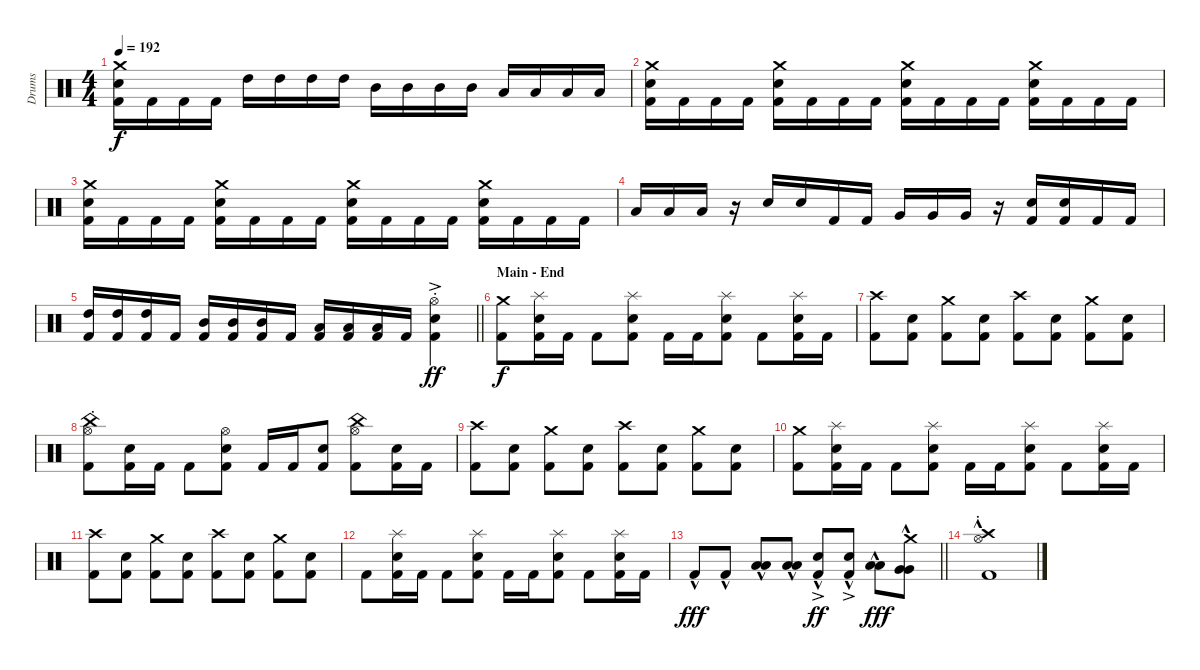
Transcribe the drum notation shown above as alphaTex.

\track ("Drums" "Drums") {instrument percussion}
\staff {score}
\articulation defaults
\ts (4 4)
\tempo 192
\clef neutral
\ks c
("Kick (hit) 2" "Snare (hit) 2" "Crash medium (hit)").16{dy f} "Kick (hit) 2".16 "Kick (hit) 2".16 "Kick (hit) 2".16 "High Tom (hit)".16 "High Tom (hit)".16 "High Tom (hit)".16 "High Tom (hit)".16 "Mid Tom (hit)".16 "Mid Tom (hit)".16 "Mid Tom (hit)".16 "Mid Tom (hit)".16 "Low Tom (hit)".16 "Low Tom (hit)".16 "Low Tom (hit)".16 "Low Tom (hit)".16 |
("Kick (hit) 2" "Snare (hit) 2" "Crash medium (hit)").16 "Kick (hit) 2".16 "Kick (hit) 2".16 "Kick (hit) 2".16 ("Kick (hit) 2" "Snare (hit) 2" "Crash medium (hit)").16 "Kick (hit) 2".16 "Kick (hit) 2".16 "Kick (hit) 2".16 ("Kick (hit) 2" "Snare (hit) 2" "Crash medium (hit)").16 "Kick (hit) 2".16 "Kick (hit) 2".16 "Kick (hit) 2".16 ("Kick (hit) 2" "Snare (hit) 2" "Crash medium (hit)").16 "Kick (hit) 2".16 "Kick (hit) 2".16 "Kick (hit) 2".16 |
("Kick (hit) 2" "Snare (hit) 2" "Crash medium (hit)").16 "Kick (hit) 2".16 "Kick (hit) 2".16 "Kick (hit) 2".16 ("Kick (hit) 2" "Snare (hit) 2" "Crash medium (hit)").16 "Kick (hit) 2".16 "Kick (hit) 2".16 "Kick (hit) 2".16 ("Kick (hit) 2" "Snare (hit) 2" "Crash medium (hit)").16 "Kick (hit) 2".16 "Kick (hit) 2".16 "Kick (hit) 2".16 ("Kick (hit) 2" "Snare (hit) 2" "Crash medium (hit)").16 "Kick (hit) 2".16 "Kick (hit) 2".16 "Kick (hit) 2".16 |
"Low Tom (hit)".16 "Low Tom (hit)".16 "Low Tom (hit)".16 r.16 "Snare (hit) 2".16 "Snare (hit) 2".16 "Kick (hit) 2".16 "Kick (hit) 2".16 "Very Low Tom (hit)".16 "Very Low Tom (hit)".16 "Very Low Tom (hit)".16 r.16 ("Kick (hit) 2" "Snare (hit) 2").16 ("Kick (hit) 2" "Snare (hit) 2").16 "Kick (hit) 2".16 "Kick (hit) 2".16 |
\barLineRight lightlight
("Kick (hit) 2" "High Tom (hit)").16 ("Kick (hit) 2" "High Tom (hit)").16 ("Kick (hit) 2" "High Tom (hit)").16 "Kick (hit) 2".16 ("Kick (hit) 2" "Mid Tom (hit)").16 ("Kick (hit) 2" "Mid Tom (hit)").16 ("Kick (hit) 2" "Mid Tom (hit)").16 "Kick (hit) 2".16 ("Kick (hit) 2" "Low Tom (hit)").16 ("Kick (hit) 2" "Low Tom (hit)").16 ("Kick (hit) 2" "Low Tom (hit)").16 "Kick (hit) 2".16 ("Kick (hit) 2" "Snare (hit) 2"{ac st} "Hi-Hat (open)").4{dy ff} |
\section ("" "Main - End")
("Kick (hit) 2" "Crash medium (hit)").8{dy f} ("Kick (hit) 2" "Snare (hit) 2" "Splash (hit)").16 "Kick (hit) 2".16 "Kick (hit) 2".8 ("Kick (hit) 2" "Snare (hit) 2" "Splash (hit)").8 "Kick (hit) 2".16 "Kick (hit) 2".16 ("Kick (hit) 2" "Snare (hit) 2" "Splash (hit)").8 "Kick (hit) 2".8 ("Kick (hit) 2" "Snare (hit) 2" "Splash (hit)").16 "Kick (hit) 2".16 |
("Kick (hit) 2" "Crash high (hit)").8 ("Kick (hit) 2" "Snare (hit) 2").8 ("Kick (hit) 2" "Crash medium (hit)").8 ("Kick (hit) 2" "Snare (hit) 2").8 ("Kick (hit) 2" "Crash high (hit)").8 ("Kick (hit) 2" "Snare (hit) 2").8 ("Kick (hit) 2" "Crash medium (hit)").8 ("Kick (hit) 2" "Snare (hit) 2").8 |
("Kick (hit) 2" "China (hit)"{st} "Hi-Hat (open)").8 ("Kick (hit) 2" "Snare (hit) 2").16 "Kick (hit) 2".16 "Kick (hit) 2".8 ("Kick (hit) 2" "Snare (hit) 2" "Hi-Hat (open)").8 "Kick (hit) 2".16 "Kick (hit) 2".16 ("Kick (hit) 2" "Snare (hit) 2").8 ("Kick (hit) 2" "China (hit)" "Hi-Hat (open)").8 ("Kick (hit) 2" "Snare (hit) 2").16 "Kick (hit) 2".16 |
("Kick (hit) 2" "Crash high (hit)").8 ("Kick (hit) 2" "Snare (hit) 2").8 ("Kick (hit) 2" "Crash medium (hit)").8 ("Kick (hit) 2" "Snare (hit) 2").8 ("Kick (hit) 2" "Crash high (hit)").8 ("Kick (hit) 2" "Snare (hit) 2").8 ("Kick (hit) 2" "Crash medium (hit)").8 ("Kick (hit) 2" "Snare (hit) 2").8 |
("Kick (hit) 2" "Crash medium (hit)").8 ("Kick (hit) 2" "Snare (hit) 2" "Splash (hit)").16 "Kick (hit) 2".16 "Kick (hit) 2".8 ("Kick (hit) 2" "Snare (hit) 2" "Splash (hit)").8 "Kick (hit) 2".16 "Kick (hit) 2".16 ("Kick (hit) 2" "Snare (hit) 2" "Splash (hit)").8 "Kick (hit) 2".8 ("Kick (hit) 2" "Snare (hit) 2" "Splash (hit)").16 "Kick (hit) 2".16 |
("Kick (hit) 2" "Crash high (hit)").8 ("Kick (hit) 2" "Snare (hit) 2").8 ("Kick (hit) 2" "Crash medium (hit)").8 ("Kick (hit) 2" "Snare (hit) 2").8 ("Kick (hit) 2" "Crash high (hit)").8 ("Kick (hit) 2" "Snare (hit) 2").8 ("Kick (hit) 2" "Crash medium (hit)").8 ("Kick (hit) 2" "Snare (hit) 2").8 |
"Kick (hit) 2".8 ("Kick (hit) 2" "Snare (hit) 2" "Splash (hit)").16 "Kick (hit) 2".16 "Kick (hit) 2".8 ("Kick (hit) 2" "Snare (hit) 2" "Splash (hit)").8 "Kick (hit) 2".16 "Kick (hit) 2".16 ("Kick (hit) 2" "Snare (hit) 2" "Splash (hit)").8 "Kick (hit) 2".8 ("Kick (hit) 2" "Snare (hit) 2" "Splash (hit)").16 "Kick (hit) 2".16 |
\barLineRight lightlight "Kick (hit) 2"{hac}.8{dy fff} "Kick (hit) 2"{hac}.8
("Low Tom (hit)"{hac} "Low Tom (hit)"{hac}).8 ("Low Tom (hit)"{hac} "Low Tom (hit)"{hac}).8 ("Kick (hit) 2"{hac} "Snare (hit) 2"{ac}).8{dy ff} ("Kick (hit) 2"{hac} "Snare (hit) 2"{ac}).8 ("Low Tom (hit)"{hac} "Low Tom (hit)"{hac}).8{dy fff} ("Very Low Tom (hit)"{hac} "Very Low Tom (hit)"{hac} "Crash medium (hit)").8 |
("Kick (hit) 2"{hac} "Hi-Hat (open)"{st} "Crash high (hit)"{st}).1
